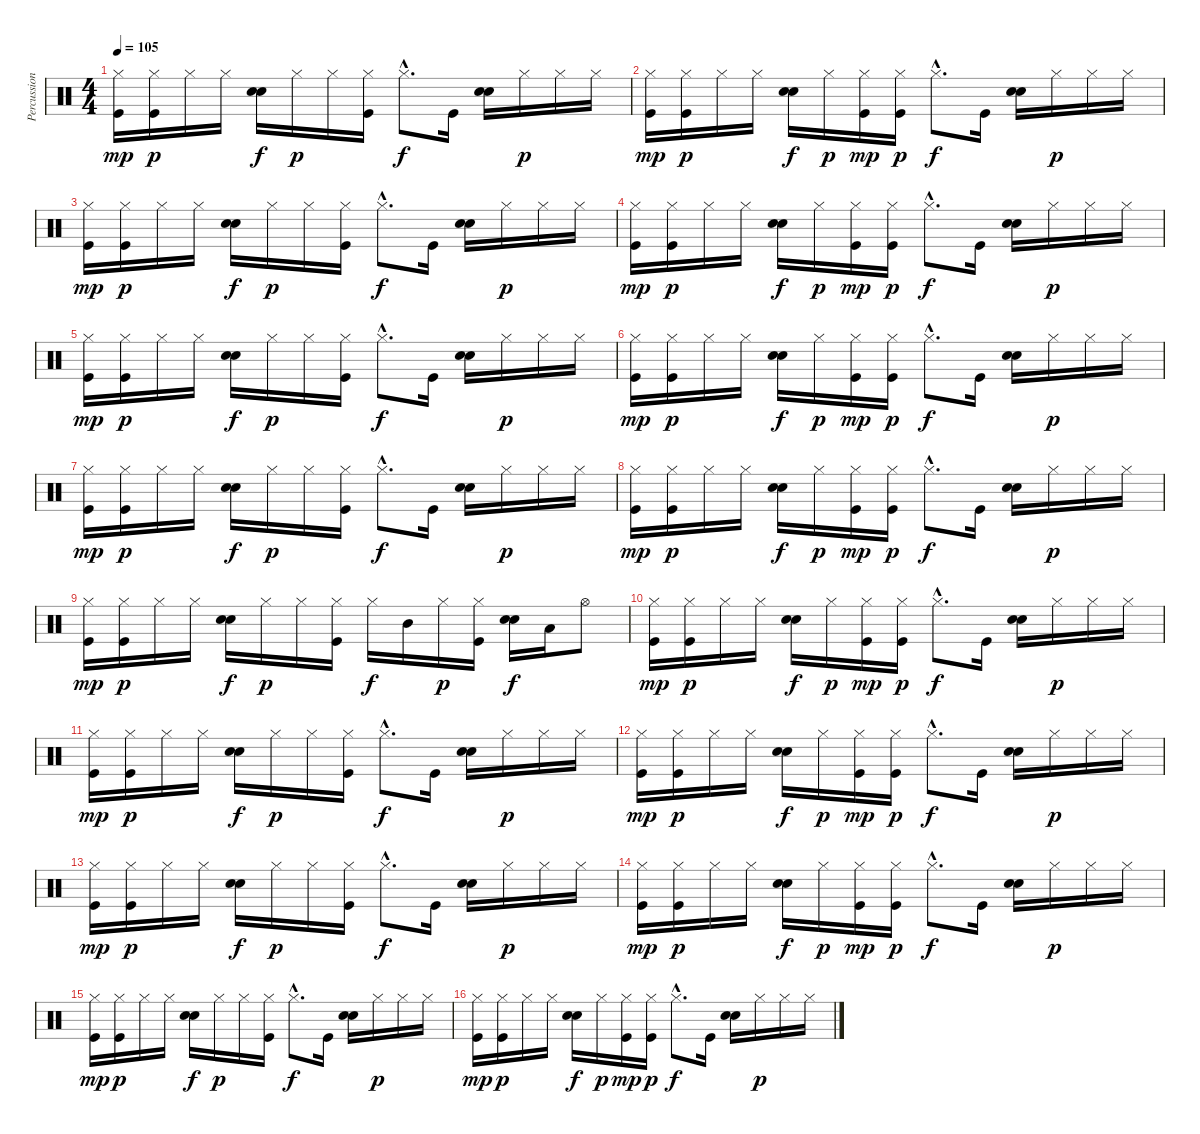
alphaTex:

\track ("Percussions" "Percussion") {instrument percussion}
\staff {score}
\articulation defaults
\ts (4 4)
\tempo 105
\clef neutral
\ks c
("Hi-Hat (closed)" "Kick (hit)").16{dy mp} ("Hi-Hat (closed)" "Kick (hit)").16{dy p} "Hi-Hat (closed)".16 "Hi-Hat (closed)".16 ("Hand Clap (hit)" "Snare (hit) 2").16{dy f} "Hi-Hat (closed)".16{dy p} "Hi-Hat (closed)".16 ("Hi-Hat (closed)" "Kick (hit)").16 "Hi-Hat (closed)"{hac}.8{d dy f} "Kick (hit)".16 ("Hand Clap (hit)" "Snare (hit) 2").16 "Hi-Hat (closed)".16{dy p} "Hi-Hat (closed)".16 "Hi-Hat (closed)".16 |
("Hi-Hat (closed)" "Kick (hit)").16{dy mp} ("Hi-Hat (closed)" "Kick (hit)").16{dy p} "Hi-Hat (closed)".16 "Hi-Hat (closed)".16 ("Hand Clap (hit)" "Snare (hit) 2").16{dy f} "Hi-Hat (closed)".16{dy p} ("Hi-Hat (closed)" "Kick (hit)").16{dy mp} ("Hi-Hat (closed)" "Kick (hit)").16{dy p} "Hi-Hat (closed)"{hac}.8{d dy f} "Kick (hit)".16 ("Hand Clap (hit)" "Snare (hit) 2").16 "Hi-Hat (closed)".16{dy p} "Hi-Hat (closed)".16 "Hi-Hat (closed)".16 |
("Hi-Hat (closed)" "Kick (hit)").16{dy mp} ("Hi-Hat (closed)" "Kick (hit)").16{dy p} "Hi-Hat (closed)".16 "Hi-Hat (closed)".16 ("Hand Clap (hit)" "Snare (hit) 2").16{dy f} "Hi-Hat (closed)".16{dy p} "Hi-Hat (closed)".16 ("Hi-Hat (closed)" "Kick (hit)").16 "Hi-Hat (closed)"{hac}.8{d dy f} "Kick (hit)".16 ("Hand Clap (hit)" "Snare (hit) 2").16 "Hi-Hat (closed)".16{dy p} "Hi-Hat (closed)".16 "Hi-Hat (closed)".16 |
("Hi-Hat (closed)" "Kick (hit)").16{dy mp} ("Hi-Hat (closed)" "Kick (hit)").16{dy p} "Hi-Hat (closed)".16 "Hi-Hat (closed)".16 ("Hand Clap (hit)" "Snare (hit) 2").16{dy f} "Hi-Hat (closed)".16{dy p} ("Hi-Hat (closed)" "Kick (hit)").16{dy mp} ("Hi-Hat (closed)" "Kick (hit)").16{dy p} "Hi-Hat (closed)"{hac}.8{d dy f} "Kick (hit)".16 ("Hand Clap (hit)" "Snare (hit) 2").16 "Hi-Hat (closed)".16{dy p} "Hi-Hat (closed)".16 "Hi-Hat (closed)".16 |
("Hi-Hat (closed)" "Kick (hit)").16{dy mp} ("Hi-Hat (closed)" "Kick (hit)").16{dy p} "Hi-Hat (closed)".16 "Hi-Hat (closed)".16 ("Hand Clap (hit)" "Snare (hit) 2").16{dy f} "Hi-Hat (closed)".16{dy p} "Hi-Hat (closed)".16 ("Hi-Hat (closed)" "Kick (hit)").16 "Hi-Hat (closed)"{hac}.8{d dy f} "Kick (hit)".16 ("Hand Clap (hit)" "Snare (hit) 2").16 "Hi-Hat (closed)".16{dy p} "Hi-Hat (closed)".16 "Hi-Hat (closed)".16 |
("Hi-Hat (closed)" "Kick (hit)").16{dy mp} ("Hi-Hat (closed)" "Kick (hit)").16{dy p} "Hi-Hat (closed)".16 "Hi-Hat (closed)".16 ("Hand Clap (hit)" "Snare (hit) 2").16{dy f} "Hi-Hat (closed)".16{dy p} ("Hi-Hat (closed)" "Kick (hit)").16{dy mp} ("Hi-Hat (closed)" "Kick (hit)").16{dy p} "Hi-Hat (closed)"{hac}.8{d dy f} "Kick (hit)".16 ("Hand Clap (hit)" "Snare (hit) 2").16 "Hi-Hat (closed)".16{dy p} "Hi-Hat (closed)".16 "Hi-Hat (closed)".16 |
("Hi-Hat (closed)" "Kick (hit)").16{dy mp} ("Hi-Hat (closed)" "Kick (hit)").16{dy p} "Hi-Hat (closed)".16 "Hi-Hat (closed)".16 ("Hand Clap (hit)" "Snare (hit) 2").16{dy f} "Hi-Hat (closed)".16{dy p} "Hi-Hat (closed)".16 ("Hi-Hat (closed)" "Kick (hit)").16 "Hi-Hat (closed)"{hac}.8{d dy f} "Kick (hit)".16 ("Hand Clap (hit)" "Snare (hit) 2").16 "Hi-Hat (closed)".16{dy p} "Hi-Hat (closed)".16 "Hi-Hat (closed)".16 |
("Hi-Hat (closed)" "Kick (hit)").16{dy mp} ("Hi-Hat (closed)" "Kick (hit)").16{dy p} "Hi-Hat (closed)".16 "Hi-Hat (closed)".16 ("Hand Clap (hit)" "Snare (hit) 2").16{dy f} "Hi-Hat (closed)".16{dy p} ("Hi-Hat (closed)" "Kick (hit)").16{dy mp} ("Hi-Hat (closed)" "Kick (hit)").16{dy p} "Hi-Hat (closed)"{hac}.8{d dy f} "Kick (hit)".16 ("Hand Clap (hit)" "Snare (hit) 2").16 "Hi-Hat (closed)".16{dy p} "Hi-Hat (closed)".16 "Hi-Hat (closed)".16 |
("Hi-Hat (closed)" "Kick (hit)").16{dy mp} ("Hi-Hat (closed)" "Kick (hit)").16{dy p} "Hi-Hat (closed)".16 "Hi-Hat (closed)".16 ("Hand Clap (hit)" "Snare (hit) 2").16{dy f} "Hi-Hat (closed)".16{dy p} "Hi-Hat (closed)".16 ("Hi-Hat (closed)" "Kick (hit)").16 "Hi-Hat (closed)".16{dy f} "Mid Tom (hit)".16 "Hi-Hat (closed)".16{dy p} ("Hi-Hat (closed)" "Kick (hit)").16 ("Hand Clap (hit)" "Snare (hit) 2").16{dy f} "Low Tom (hit)".16 "Hi-Hat (open)".8 |
("Hi-Hat (closed)" "Kick (hit)").16{dy mp} ("Hi-Hat (closed)" "Kick (hit)").16{dy p} "Hi-Hat (closed)".16 "Hi-Hat (closed)".16 ("Hand Clap (hit)" "Snare (hit) 2").16{dy f} "Hi-Hat (closed)".16{dy p} ("Hi-Hat (closed)" "Kick (hit)").16{dy mp} ("Hi-Hat (closed)" "Kick (hit)").16{dy p} "Hi-Hat (closed)"{hac}.8{d dy f} "Kick (hit)".16 ("Hand Clap (hit)" "Snare (hit) 2").16 "Hi-Hat (closed)".16{dy p} "Hi-Hat (closed)".16 "Hi-Hat (closed)".16 |
("Hi-Hat (closed)" "Kick (hit)").16{dy mp} ("Hi-Hat (closed)" "Kick (hit)").16{dy p} "Hi-Hat (closed)".16 "Hi-Hat (closed)".16 ("Hand Clap (hit)" "Snare (hit) 2").16{dy f} "Hi-Hat (closed)".16{dy p} "Hi-Hat (closed)".16 ("Hi-Hat (closed)" "Kick (hit)").16 "Hi-Hat (closed)"{hac}.8{d dy f} "Kick (hit)".16 ("Hand Clap (hit)" "Snare (hit) 2").16 "Hi-Hat (closed)".16{dy p} "Hi-Hat (closed)".16 "Hi-Hat (closed)".16 |
("Hi-Hat (closed)" "Kick (hit)").16{dy mp} ("Hi-Hat (closed)" "Kick (hit)").16{dy p} "Hi-Hat (closed)".16 "Hi-Hat (closed)".16 ("Hand Clap (hit)" "Snare (hit) 2").16{dy f} "Hi-Hat (closed)".16{dy p} ("Hi-Hat (closed)" "Kick (hit)").16{dy mp} ("Hi-Hat (closed)" "Kick (hit)").16{dy p} "Hi-Hat (closed)"{hac}.8{d dy f} "Kick (hit)".16 ("Hand Clap (hit)" "Snare (hit) 2").16 "Hi-Hat (closed)".16{dy p} "Hi-Hat (closed)".16 "Hi-Hat (closed)".16 |
("Hi-Hat (closed)" "Kick (hit)").16{dy mp} ("Hi-Hat (closed)" "Kick (hit)").16{dy p} "Hi-Hat (closed)".16 "Hi-Hat (closed)".16 ("Hand Clap (hit)" "Snare (hit) 2").16{dy f} "Hi-Hat (closed)".16{dy p} "Hi-Hat (closed)".16 ("Hi-Hat (closed)" "Kick (hit)").16 "Hi-Hat (closed)"{hac}.8{d dy f} "Kick (hit)".16 ("Hand Clap (hit)" "Snare (hit) 2").16 "Hi-Hat (closed)".16{dy p} "Hi-Hat (closed)".16 "Hi-Hat (closed)".16 |
("Hi-Hat (closed)" "Kick (hit)").16{dy mp} ("Hi-Hat (closed)" "Kick (hit)").16{dy p} "Hi-Hat (closed)".16 "Hi-Hat (closed)".16 ("Hand Clap (hit)" "Snare (hit) 2").16{dy f} "Hi-Hat (closed)".16{dy p} ("Hi-Hat (closed)" "Kick (hit)").16{dy mp} ("Hi-Hat (closed)" "Kick (hit)").16{dy p} "Hi-Hat (closed)"{hac}.8{d dy f} "Kick (hit)".16 ("Hand Clap (hit)" "Snare (hit) 2").16 "Hi-Hat (closed)".16{dy p} "Hi-Hat (closed)".16 "Hi-Hat (closed)".16 |
("Hi-Hat (closed)" "Kick (hit)").16{dy mp} ("Hi-Hat (closed)" "Kick (hit)").16{dy p} "Hi-Hat (closed)".16 "Hi-Hat (closed)".16 ("Hand Clap (hit)" "Snare (hit) 2").16{dy f} "Hi-Hat (closed)".16{dy p} "Hi-Hat (closed)".16 ("Hi-Hat (closed)" "Kick (hit)").16 "Hi-Hat (closed)"{hac}.8{d dy f} "Kick (hit)".16 ("Hand Clap (hit)" "Snare (hit) 2").16 "Hi-Hat (closed)".16{dy p} "Hi-Hat (closed)".16 "Hi-Hat (closed)".16 |
("Hi-Hat (closed)" "Kick (hit)").16{dy mp} ("Hi-Hat (closed)" "Kick (hit)").16{dy p} "Hi-Hat (closed)".16 "Hi-Hat (closed)".16 ("Hand Clap (hit)" "Snare (hit) 2").16{dy f} "Hi-Hat (closed)".16{dy p} ("Hi-Hat (closed)" "Kick (hit)").16{dy mp} ("Hi-Hat (closed)" "Kick (hit)").16{dy p} "Hi-Hat (closed)"{hac}.8{d dy f} "Kick (hit)".16 ("Hand Clap (hit)" "Snare (hit) 2").16 "Hi-Hat (closed)".16{dy p} "Hi-Hat (closed)".16 "Hi-Hat (closed)".16
